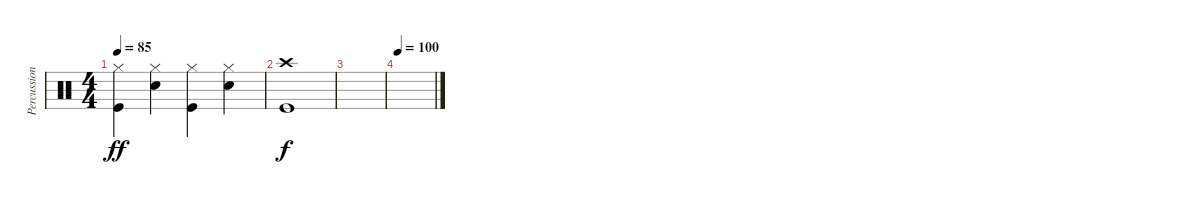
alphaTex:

\track ("Percussion" "Percussion") {instrument percussion}
\staff {score}
\articulation defaults
\ts (4 4)
\tempo 85
\clef neutral
\ks c
("Hi-Hat (closed)" "Kick (hit)").4{dy ff} ("Hi-Hat (closed)" "Snare (hit) 2").4 ("Hi-Hat (closed)" "Kick (hit)").4 ("Hi-Hat (closed)" "Snare (hit) 2").4 |
("Crash high (hit)" "Kick (hit)").1{dy f} |
|
\tempo 100
